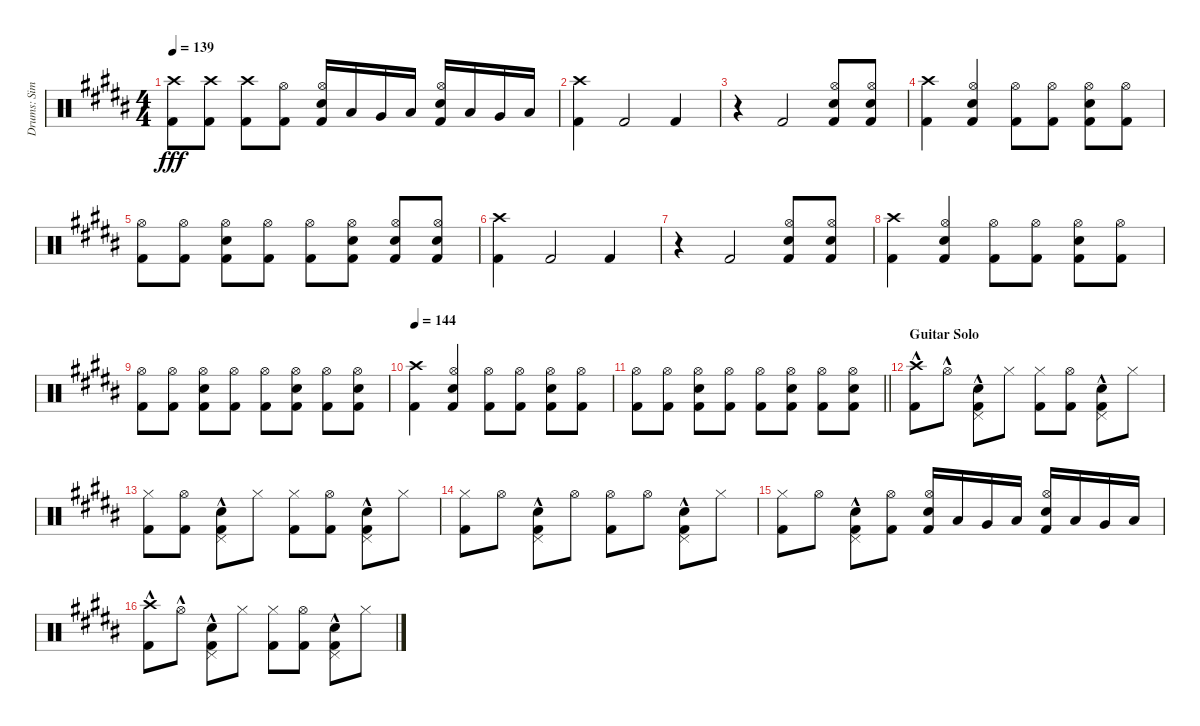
\track ("Drums: Simon" "Drums: Sim") {instrument percussion}
\staff {score}
\articulation defaults
\ts (4 4)
\tempo 139
\clef neutral
\ks b
("Crash high (hit)" "Kick (hit) 2").8{dy fff} ("Crash high (hit)" "Kick (hit) 2").8 ("Crash high (hit)" "Kick (hit) 2").8 ("Hi-Hat (open)" "Kick (hit) 2").8 ("Hi-Hat (open)" "Snare (hit) 2" "Kick (hit) 2").16 "Low Tom (hit)".16 "Very Low Tom (hit)".16 "Low Floor Tom (hit)".16 ("Hi-Hat (open)" "Snare (hit) 2" "Kick (hit) 2").16 "Low Tom (hit)".16 "Very Low Tom (hit)".16 "Low Floor Tom (hit)".16 |
("Crash high (hit)" "Kick (hit) 2").4 "Kick (hit) 2".2 "Kick (hit) 2".4 |
r.4 "Kick (hit) 2".2 ("Hi-Hat (open)" "Snare (hit) 2" "Kick (hit) 2").8 ("Hi-Hat (open)" "Snare (hit) 2" "Kick (hit) 2").8 |
("Crash high (hit)" "Kick (hit) 2").4 ("Hi-Hat (open)" "Snare (hit) 2" "Kick (hit) 2").4 ("Hi-Hat (open)" "Kick (hit) 2").8 ("Hi-Hat (open)" "Kick (hit) 2").8 ("Hi-Hat (open)" "Snare (hit) 2" "Kick (hit) 2").8 ("Hi-Hat (open)" "Kick (hit) 2").8 |
("Hi-Hat (open)" "Kick (hit) 2").8 ("Hi-Hat (open)" "Kick (hit) 2").8 ("Hi-Hat (open)" "Snare (hit) 2" "Kick (hit) 2").8 ("Hi-Hat (open)" "Kick (hit) 2").8 ("Hi-Hat (open)" "Kick (hit) 2").8 ("Hi-Hat (open)" "Snare (hit) 2" "Kick (hit) 2").8 ("Hi-Hat (open)" "Snare (hit) 2" "Kick (hit) 2").8 ("Hi-Hat (open)" "Snare (hit) 2" "Kick (hit) 2").8 |
("Crash high (hit)" "Kick (hit) 2").4 "Kick (hit) 2".2 "Kick (hit) 2".4 |
r.4 "Kick (hit) 2".2 ("Hi-Hat (open)" "Snare (hit) 2" "Kick (hit) 2").8 ("Hi-Hat (open)" "Snare (hit) 2" "Kick (hit) 2").8 |
("Crash high (hit)" "Kick (hit) 2").4 ("Hi-Hat (open)" "Snare (hit) 2" "Kick (hit) 2").4 ("Hi-Hat (open)" "Kick (hit) 2").8 ("Hi-Hat (open)" "Kick (hit) 2").8 ("Hi-Hat (open)" "Snare (hit) 2" "Kick (hit) 2").8 ("Hi-Hat (open)" "Kick (hit) 2").8 |
("Hi-Hat (open)" "Kick (hit) 2").8 ("Hi-Hat (open)" "Kick (hit) 2").8 ("Hi-Hat (open)" "Snare (hit) 2" "Kick (hit) 2").8 ("Hi-Hat (open)" "Kick (hit) 2").8 ("Hi-Hat (open)" "Kick (hit) 2").8 ("Hi-Hat (open)" "Snare (hit) 2" "Kick (hit) 2").8 ("Hi-Hat (open)" "Kick (hit) 2").8 ("Hi-Hat (open)" "Snare (hit) 2" "Kick (hit) 2").8 |
\tempo 144
("Crash high (hit)" "Kick (hit) 2").4 ("Hi-Hat (open)" "Snare (hit) 2" "Kick (hit) 2").4 ("Hi-Hat (open)" "Kick (hit) 2").8 ("Hi-Hat (open)" "Kick (hit) 2").8 ("Hi-Hat (open)" "Snare (hit) 2" "Kick (hit) 2").8 ("Hi-Hat (open)" "Kick (hit) 2").8 |
\barLineRight lightlight
("Hi-Hat (open)" "Kick (hit) 2").8 ("Hi-Hat (open)" "Kick (hit) 2").8 ("Hi-Hat (open)" "Snare (hit) 2" "Kick (hit) 2").8 ("Hi-Hat (open)" "Kick (hit) 2").8 ("Hi-Hat (open)" "Kick (hit) 2").8 ("Hi-Hat (open)" "Snare (hit) 2" "Kick (hit) 2").8 ("Hi-Hat (open)" "Kick (hit) 2").8 ("Hi-Hat (open)" "Snare (hit) 2" "Kick (hit) 2").8 |
\section ("" "Guitar Solo")
("Crash high (hit)"{hac} "Kick (hit) 2"{hac}).8 "Hi-Hat (open)"{hac}.8 ("Pedal Hi-Hat (hit)"{hac} "Snare (hit) 2"{hac} "Kick (hit) 2"{hac}).8 "Hi-Hat (closed)".8 ("Hi-Hat (closed)" "Kick (hit) 2").8 ("Hi-Hat (open)" "Kick (hit) 2").8 ("Pedal Hi-Hat (hit)"{hac} "Snare (hit) 2"{hac} "Kick (hit) 2"{hac}).8 "Hi-Hat (closed)".8 |
("Hi-Hat (closed)" "Kick (hit) 2").8 ("Hi-Hat (open)" "Kick (hit) 2").8 ("Pedal Hi-Hat (hit)"{hac} "Snare (hit) 2"{hac} "Kick (hit) 2"{hac}).8 "Hi-Hat (closed)".8 ("Hi-Hat (closed)" "Kick (hit) 2").8 ("Hi-Hat (open)" "Kick (hit) 2").8 ("Pedal Hi-Hat (hit)"{hac} "Snare (hit) 2"{hac} "Kick (hit) 2"{hac}).8 "Hi-Hat (closed)".8 |
("Hi-Hat (closed)" "Kick (hit) 2").8 "Hi-Hat (open)".8 ("Pedal Hi-Hat (hit)"{hac} "Snare (hit) 2"{hac} "Kick (hit) 2"{hac}).8 "Hi-Hat (open)".8 ("Hi-Hat (open)" "Kick (hit) 2").8 "Hi-Hat (open)".8 ("Pedal Hi-Hat (hit)"{hac} "Snare (hit) 2"{hac} "Kick (hit) 2"{hac}).8 "Hi-Hat (closed)".8 |
("Hi-Hat (closed)" "Kick (hit) 2").8 "Hi-Hat (open)".8 ("Pedal Hi-Hat (hit)"{hac} "Snare (hit) 2"{hac} "Kick (hit) 2"{hac}).8 ("Hi-Hat (open)" "Kick (hit) 2").8 ("Hi-Hat (open)" "Snare (hit) 2" "Kick (hit) 2").16 "Low Tom (hit)".16 "Very Low Tom (hit)".16 "Low Floor Tom (hit)".16 ("Hi-Hat (open)" "Snare (hit) 2" "Kick (hit) 2").16 "Low Tom (hit)".16 "Very Low Tom (hit)".16 "Low Floor Tom (hit)".16 |
("Crash high (hit)"{hac} "Kick (hit) 2"{hac}).8 "Hi-Hat (open)"{hac}.8 ("Pedal Hi-Hat (hit)"{hac} "Snare (hit) 2"{hac} "Kick (hit) 2"{hac}).8 "Hi-Hat (closed)".8 ("Hi-Hat (closed)" "Kick (hit) 2").8 ("Hi-Hat (open)" "Kick (hit) 2").8 ("Pedal Hi-Hat (hit)"{hac} "Snare (hit) 2"{hac} "Kick (hit) 2"{hac}).8 "Hi-Hat (closed)".8
